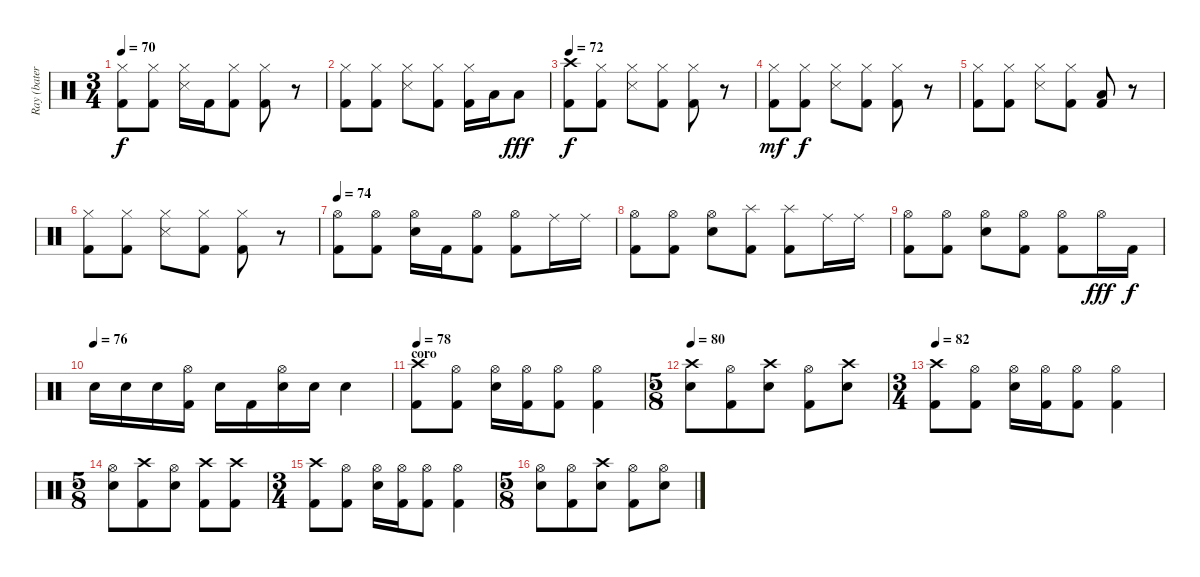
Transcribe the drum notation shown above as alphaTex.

\track ("Ray (batería)" "Ray (bater") {instrument percussion}
\staff {score}
\articulation defaults
\ts (3 4)
\tempo 70
\clef neutral
\ks c
("Hi-Hat (closed)" "Kick (hit) 2").8{dy f} ("Hi-Hat (closed)" "Kick (hit) 2").8 ("Hi-Hat (closed)" "Snare (side stick) 3").16 "Kick (hit) 2".16 ("Hi-Hat (closed)" "Kick (hit) 2").8 ("Hi-Hat (closed)" "Kick (hit) 2").8 r.8 |
("Hi-Hat (closed)" "Kick (hit) 2").8 ("Hi-Hat (closed)" "Kick (hit) 2").8 ("Hi-Hat (closed)" "Snare (side stick) 3").8 ("Hi-Hat (closed)" "Kick (hit) 2").8 ("Hi-Hat (closed)" "Kick (hit) 2").16 "Low Tom (hit)".16 "Low Tom (hit)".8{dy fff} |
\tempo 72
("Crash high (hit)" "Kick (hit) 2").8{dy f} ("Hi-Hat (closed)" "Kick (hit) 2").8 ("Hi-Hat (closed)" "Snare (side stick) 3").8 ("Hi-Hat (closed)" "Kick (hit) 2").8 ("Hi-Hat (closed)" "Kick (hit) 2").8 r.8 |
("Hi-Hat (closed)" "Kick (hit) 2").8{dy mf} ("Hi-Hat (closed)" "Kick (hit) 2").8{dy f} ("Hi-Hat (closed)" "Snare (side stick) 3").8 ("Hi-Hat (closed)" "Kick (hit) 2").8 ("Hi-Hat (closed)" "Kick (hit) 2").8 r.8 |
("Hi-Hat (closed)" "Kick (hit) 2").8 ("Hi-Hat (closed)" "Kick (hit) 2").8 ("Hi-Hat (closed)" "Snare (side stick) 3").8 ("Hi-Hat (closed)" "Kick (hit) 2").8 ("Low Tom (hit)" "Kick (hit) 2").8 r.8 |
("Hi-Hat (closed)" "Kick (hit) 2").8 ("Hi-Hat (closed)" "Kick (hit) 2").8 ("Hi-Hat (closed)" "Snare (side stick) 3").8 ("Hi-Hat (closed)" "Kick (hit) 2").8 ("Hi-Hat (closed)" "Kick (hit) 2").8 r.8 |
\tempo 74
("Hi-Hat (open)" "Kick (hit) 2").8 ("Hi-Hat (open)" "Kick (hit) 2").8 ("Hi-Hat (open)" "Snare (hit) 2").16 "Kick (hit) 2".16 ("Hi-Hat (open)" "Kick (hit) 2").8 ("Hi-Hat (open)" "Kick (hit) 2").8 "Ride (middle)".16 "Ride (middle)".16 |
("Hi-Hat (open)" "Kick (hit) 2").8 ("Hi-Hat (open)" "Kick (hit) 2").8 ("Hi-Hat (open)" "Snare (hit) 2").8 ("Splash (hit)" "Kick (hit) 2").8 ("Splash (hit)" "Kick (hit) 2").8 "Ride (middle)".16 "Ride (middle)".16 |
("Hi-Hat (open)" "Kick (hit) 2").8 ("Hi-Hat (open)" "Kick (hit) 2").8 ("Hi-Hat (open)" "Snare (hit) 2").8 ("Hi-Hat (open)" "Kick (hit) 2").8 ("Hi-Hat (open)" "Kick (hit) 2").8 "Hi-Hat (open)".16{dy fff} "Kick (hit) 2".16{dy f volume 15} |
\tempo (76)
"Snare (hit) 2".16 "Snare (hit) 2".16 "Snare (hit) 2".16 ("Hi-Hat (open)" "Kick (hit) 2").16 "Snare (hit) 2".16 "Kick (hit) 2".16 ("Hi-Hat (open)" "Snare (hit) 2").16 "Snare (hit) 2".16 "Snare (hit) 2".4 |
\section ("" "coro")
\tempo 78
("Crash high (hit)" "Kick (hit) 2").8 ("Hi-Hat (open)" "Kick (hit) 2").8 ("Hi-Hat (open)" "Snare (hit) 2").16 ("Hi-Hat (open)" "Kick (hit) 2").16 ("Hi-Hat (open)" "Kick (hit) 2").8 ("Hi-Hat (open)" "Kick (hit) 2").4 |
\ts (5 8)
\tempo 80
("Crash high (hit)" "Snare (hit) 2").8 ("Hi-Hat (open)" "Kick (hit) 2").8 ("Crash high (hit)" "Snare (hit) 2").8 ("Hi-Hat (open)" "Kick (hit) 2").8 ("Crash high (hit)" "Snare (hit) 2").8 |
\ts (3 4)
\tempo 82
("Crash high (hit)" "Kick (hit) 2").8 ("Hi-Hat (open)" "Kick (hit) 2").8 ("Hi-Hat (open)" "Snare (hit) 2").16 ("Hi-Hat (open)" "Kick (hit) 2").16 ("Hi-Hat (open)" "Kick (hit) 2").8 ("Hi-Hat (open)" "Kick (hit) 2").4 |
\ts (5 8)
("Hi-Hat (open)" "Snare (hit) 2").8 ("Crash high (hit)" "Kick (hit) 2").8 ("Hi-Hat (open)" "Snare (hit) 2").8 ("Crash high (hit)" "Kick (hit) 2").8 ("Crash high (hit)" "Kick (hit) 2").8 |
\ts (3 4)
("Crash high (hit)" "Kick (hit) 2").8 ("Hi-Hat (open)" "Kick (hit) 2").8 ("Hi-Hat (open)" "Snare (hit) 2").16 ("Hi-Hat (open)" "Kick (hit) 2").16 ("Hi-Hat (open)" "Kick (hit) 2").8 ("Hi-Hat (open)" "Kick (hit) 2").4 |
\ts (5 8)
("Hi-Hat (open)" "Snare (hit) 2").8 ("Hi-Hat (open)" "Kick (hit) 2").8 ("Crash high (hit)" "Snare (hit) 2").8 ("Hi-Hat (open)" "Kick (hit) 2").8 ("Hi-Hat (open)" "Snare (hit) 2").8
